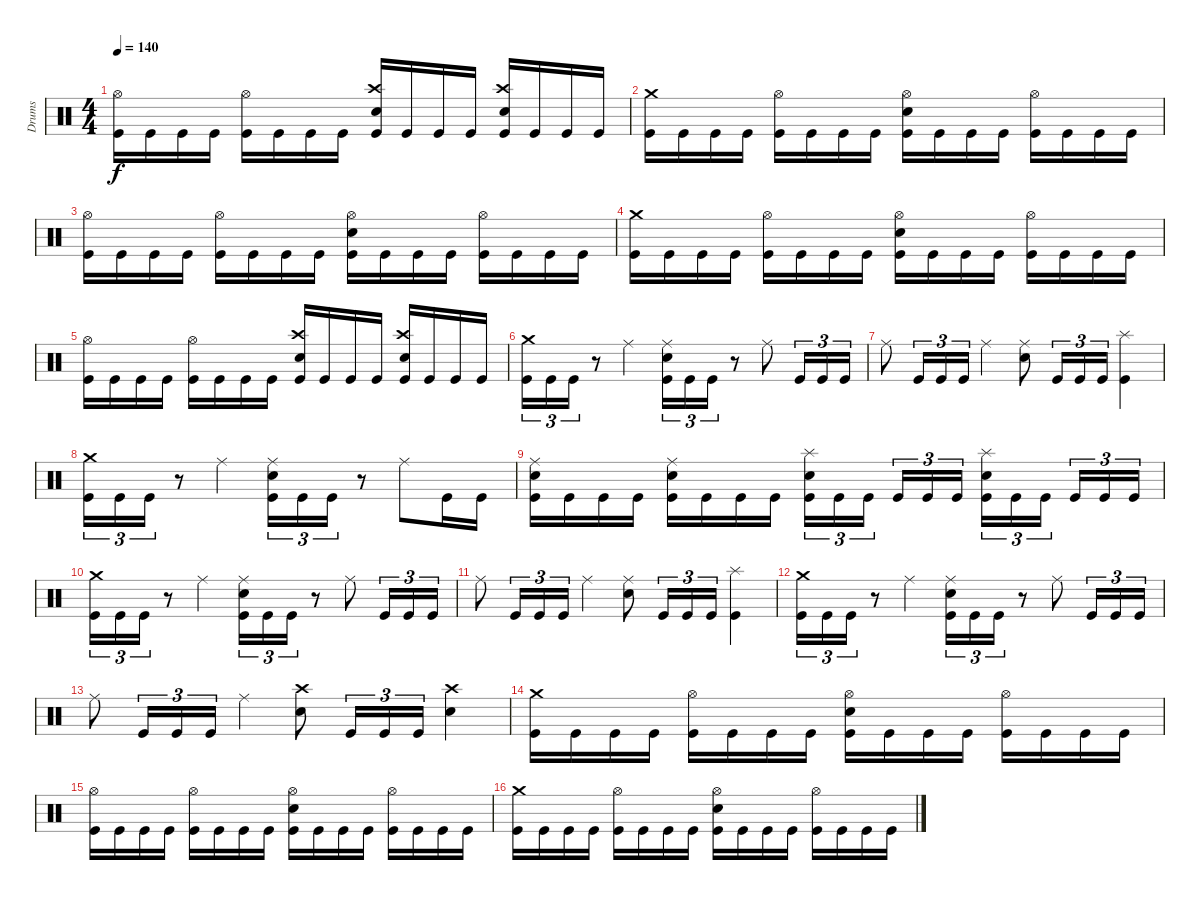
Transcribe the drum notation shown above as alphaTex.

\track ("Drums" "Drums") {instrument percussion}
\staff {score}
\articulation defaults
\ts (4 4)
\tempo 140
\clef neutral
\ks c
("Hi-Hat (open)" "Kick (hit)").16{dy f} "Kick (hit)".16 "Kick (hit)".16 "Kick (hit)".16 ("Hi-Hat (open)" "Kick (hit)").16 "Kick (hit)".16 "Kick (hit)".16 "Kick (hit)".16 ("Crash high (hit)" "Electric Snare (hit)" "Kick (hit)").16 "Kick (hit)".16 "Kick (hit)".16 "Kick (hit)".16 ("Crash high (hit)" "Electric Snare (hit)" "Kick (hit)").16 "Kick (hit)".16 "Kick (hit)".16 "Kick (hit)".16 |
("Crash medium (hit)" "Kick (hit)").16 "Kick (hit)".16 "Kick (hit)".16 "Kick (hit)".16 ("Hi-Hat (open)" "Kick (hit)").16 "Kick (hit)".16 "Kick (hit)".16 "Kick (hit)".16 ("Hi-Hat (open)" "Electric Snare (hit)" "Kick (hit)").16 "Kick (hit)".16 "Kick (hit)".16 "Kick (hit)".16 ("Hi-Hat (open)" "Kick (hit)").16 "Kick (hit)".16 "Kick (hit)".16 "Kick (hit)".16 |
("Hi-Hat (open)" "Kick (hit)").16 "Kick (hit)".16 "Kick (hit)".16 "Kick (hit)".16 ("Hi-Hat (open)" "Kick (hit)").16 "Kick (hit)".16 "Kick (hit)".16 "Kick (hit)".16 ("Hi-Hat (open)" "Electric Snare (hit)" "Kick (hit)").16 "Kick (hit)".16 "Kick (hit)".16 "Kick (hit)".16 ("Hi-Hat (open)" "Kick (hit)").16 "Kick (hit)".16 "Kick (hit)".16 "Kick (hit)".16 |
("Crash medium (hit)" "Kick (hit)").16 "Kick (hit)".16 "Kick (hit)".16 "Kick (hit)".16 ("Hi-Hat (open)" "Kick (hit)").16 "Kick (hit)".16 "Kick (hit)".16 "Kick (hit)".16 ("Hi-Hat (open)" "Electric Snare (hit)" "Kick (hit)").16 "Kick (hit)".16 "Kick (hit)".16 "Kick (hit)".16 ("Hi-Hat (open)" "Kick (hit)").16 "Kick (hit)".16 "Kick (hit)".16 "Kick (hit)".16 |
("Hi-Hat (open)" "Kick (hit)").16 "Kick (hit)".16 "Kick (hit)".16 "Kick (hit)".16 ("Hi-Hat (open)" "Kick (hit)").16 "Kick (hit)".16 "Kick (hit)".16 "Kick (hit)".16 ("Crash high (hit)" "Electric Snare (hit)" "Kick (hit)").16 "Kick (hit)".16 "Kick (hit)".16 "Kick (hit)".16 ("Crash high (hit)" "Electric Snare (hit)" "Kick (hit)").16 "Kick (hit)".16 "Kick (hit)".16 "Kick (hit)".16 |
("Crash medium (hit)" "Kick (hit)").16{tu (3 2)} "Kick (hit)".16{tu (3 2)} "Kick (hit)".16{tu (3 2)} r.8 "Ride (middle)".4 ("Ride (middle)" "Electric Snare (hit)" "Kick (hit)").16{tu (3 2)} "Kick (hit)".16{tu (3 2)} "Kick (hit)".16{tu (3 2)} r.8 "Ride (middle)".8 "Kick (hit)".16{tu (3 2)} "Kick (hit)".16{tu (3 2)} "Kick (hit)".16{tu (3 2)} |
"Ride (middle)".8 "Kick (hit)".16{tu (3 2)} "Kick (hit)".16{tu (3 2)} "Kick (hit)".16{tu (3 2)} "Ride (middle)".4 ("Ride (middle)" "Electric Snare (hit)").8 "Kick (hit)".16{tu (3 2)} "Kick (hit)".16{tu (3 2)} "Kick (hit)".16{tu (3 2)} ("Splash (hit)" "Kick (hit)").4 |
("Crash medium (hit)" "Kick (hit)").16{tu (3 2)} "Kick (hit)".16{tu (3 2)} "Kick (hit)".16{tu (3 2)} r.8 "Ride (middle)".4 ("Ride (middle)" "Electric Snare (hit)" "Kick (hit)").16{tu (3 2)} "Kick (hit)".16{tu (3 2)} "Kick (hit)".16{tu (3 2)} r.8 "Ride (middle)".8 "Kick (hit)".16 "Kick (hit)".16 |
("Ride (middle)" "Electric Snare (hit)" "Kick (hit)").16 "Kick (hit)".16 "Kick (hit)".16 "Kick (hit)".16 ("Ride (middle)" "Electric Snare (hit)" "Kick (hit)").16 "Kick (hit)".16 "Kick (hit)".16 "Kick (hit)".16 ("Splash (hit)" "Electric Snare (hit)" "Kick (hit)").16{tu (3 2)} "Kick (hit)".16{tu (3 2)} "Kick (hit)".16{tu (3 2)} "Kick (hit)".16{tu (3 2)} "Kick (hit)".16{tu (3 2)} "Kick (hit)".16{tu (3 2)} ("Splash (hit)" "Electric Snare (hit)" "Kick (hit)").16{tu (3 2)} "Kick (hit)".16{tu (3 2)} "Kick (hit)".16{tu (3 2)} "Kick (hit)".16{tu (3 2)} "Kick (hit)".16{tu (3 2)} "Kick (hit)".16{tu (3 2)} |
("Crash medium (hit)" "Kick (hit)").16{tu (3 2)} "Kick (hit)".16{tu (3 2)} "Kick (hit)".16{tu (3 2)} r.8 "Ride (middle)".4 ("Ride (middle)" "Electric Snare (hit)" "Kick (hit)").16{tu (3 2)} "Kick (hit)".16{tu (3 2)} "Kick (hit)".16{tu (3 2)} r.8 "Ride (middle)".8 "Kick (hit)".16{tu (3 2)} "Kick (hit)".16{tu (3 2)} "Kick (hit)".16{tu (3 2)} |
"Ride (middle)".8 "Kick (hit)".16{tu (3 2)} "Kick (hit)".16{tu (3 2)} "Kick (hit)".16{tu (3 2)} "Ride (middle)".4 ("Ride (middle)" "Electric Snare (hit)").8 "Kick (hit)".16{tu (3 2)} "Kick (hit)".16{tu (3 2)} "Kick (hit)".16{tu (3 2)} ("Splash (hit)" "Kick (hit)").4 |
("Crash medium (hit)" "Kick (hit)").16{tu (3 2)} "Kick (hit)".16{tu (3 2)} "Kick (hit)".16{tu (3 2)} r.8 "Ride (middle)".4 ("Ride (middle)" "Electric Snare (hit)" "Kick (hit)").16{tu (3 2)} "Kick (hit)".16{tu (3 2)} "Kick (hit)".16{tu (3 2)} r.8 "Ride (middle)".8 "Kick (hit)".16{tu (3 2)} "Kick (hit)".16{tu (3 2)} "Kick (hit)".16{tu (3 2)} |
"Ride (middle)".8 "Kick (hit)".16{tu (3 2)} "Kick (hit)".16{tu (3 2)} "Kick (hit)".16{tu (3 2)} "Ride (middle)".4 ("Crash high (hit)" "Electric Snare (hit)").8 "Kick (hit)".16{tu (3 2)} "Kick (hit)".16{tu (3 2)} "Kick (hit)".16{tu (3 2)} ("Crash high (hit)" "Electric Snare (hit)").4 |
("Crash medium (hit)" "Kick (hit)").16 "Kick (hit)".16 "Kick (hit)".16 "Kick (hit)".16 ("Hi-Hat (open)" "Kick (hit)").16 "Kick (hit)".16 "Kick (hit)".16 "Kick (hit)".16 ("Hi-Hat (open)" "Electric Snare (hit)" "Kick (hit)").16 "Kick (hit)".16 "Kick (hit)".16 "Kick (hit)".16 ("Hi-Hat (open)" "Kick (hit)").16 "Kick (hit)".16 "Kick (hit)".16 "Kick (hit)".16 |
("Hi-Hat (open)" "Kick (hit)").16 "Kick (hit)".16 "Kick (hit)".16 "Kick (hit)".16 ("Hi-Hat (open)" "Kick (hit)").16 "Kick (hit)".16 "Kick (hit)".16 "Kick (hit)".16 ("Hi-Hat (open)" "Electric Snare (hit)" "Kick (hit)").16 "Kick (hit)".16 "Kick (hit)".16 "Kick (hit)".16 ("Hi-Hat (open)" "Kick (hit)").16 "Kick (hit)".16 "Kick (hit)".16 "Kick (hit)".16 |
("Crash medium (hit)" "Kick (hit)").16 "Kick (hit)".16 "Kick (hit)".16 "Kick (hit)".16 ("Hi-Hat (open)" "Kick (hit)").16 "Kick (hit)".16 "Kick (hit)".16 "Kick (hit)".16 ("Hi-Hat (open)" "Electric Snare (hit)" "Kick (hit)").16 "Kick (hit)".16 "Kick (hit)".16 "Kick (hit)".16 ("Hi-Hat (open)" "Kick (hit)").16 "Kick (hit)".16 "Kick (hit)".16 "Kick (hit)".16
